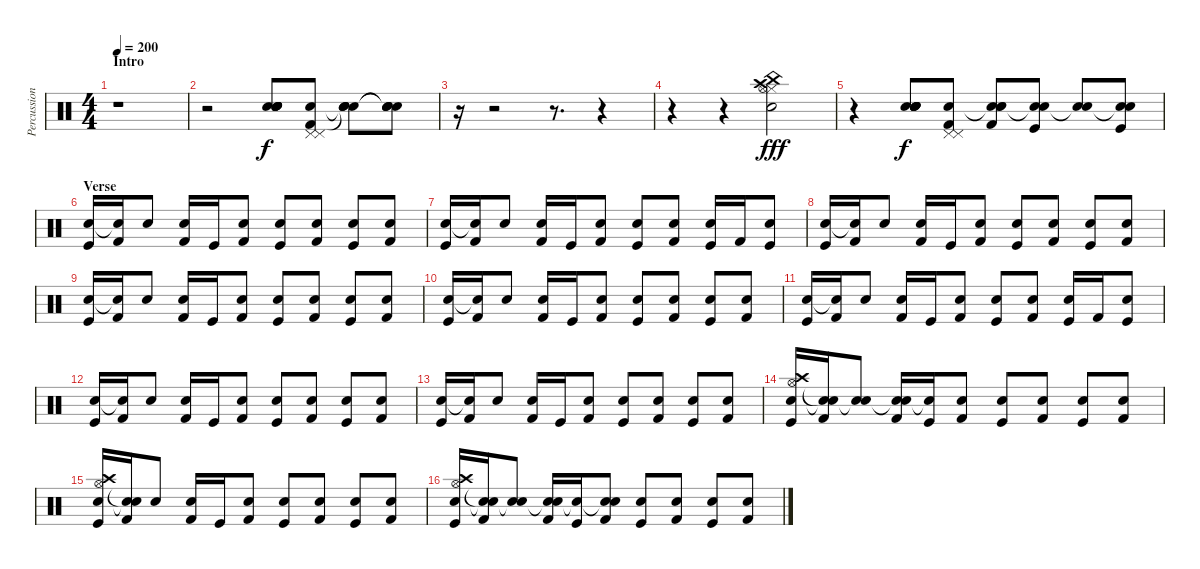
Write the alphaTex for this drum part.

\track ("Percussion" "Percussion") {instrument percussion}
\staff {score}
\articulation defaults
\ts (4 4)
\section ("" "Intro")
\tempo 200
\clef neutral
\ks c
r.1{dy f} |
r.2 ("Snare (hit) 2" "Snare (hit) 2" "Snare (hit) 2" "Snare (hit) 2" "Snare (hit) 2" "Snare (hit) 2").8 ("Snare (hit) 2" "Pedal Hi-Hat (hit)" "Pedal Hi-Hat (hit)" "Kick (hit) 2").8 ("Snare (hit)"{t} "Snare (hit) 2" "Snare (hit) 2" "Snare (hit)"{t}).8 ("Snare (hit)"{t} "Snare (hit) 2" "Snare (hit) 2" "Snare (hit)"{t}).8 |
r.16 r.2 r.8{d} r.4 |
r.4 r.4 ("Snare (hit) 2" "China (hit)" "Hi-Hat (closed)" "Hi-Hat (open)" "Crash high (hit)").2{dy fff} |
r.4 ("Snare (hit) 2" "Snare (hit) 2" "Snare (hit) 2" "Snare (hit) 2" "Snare (hit) 2" "Snare (hit) 2").8{dy f} ("Snare (hit) 2" "Pedal Hi-Hat (hit)" "Pedal Hi-Hat (hit)" "Kick (hit) 2").8 ("Snare (hit)"{t} "Snare (hit) 2" "Snare (hit) 2" "Kick (hit) 2").8 ("Snare (hit)"{t} "Electric Snare (hit)" "Kick (hit)").8 ("Snare (hit)"{t} "Snare (hit) 2").8 ("Snare (hit)"{t} "Electric Snare (hit)" "Kick (hit)").8 |
\section ("" "Verse")
("Snare (hit) 2" "Kick (hit)").16 ("Snare (hit) 2"{t} "Kick (hit) 2").16 "Electric Snare (hit)".8 ("Snare (hit) 2" "Kick (hit) 2").16 "Kick (hit)".16 ("Electric Snare (hit)" "Kick (hit) 2").8 ("Snare (hit) 2" "Kick (hit)").8 ("Electric Snare (hit)" "Kick (hit) 2").8 ("Snare (hit) 2" "Kick (hit)").8 ("Electric Snare (hit)" "Kick (hit) 2").8 |
("Snare (hit) 2" "Kick (hit)").16 ("Snare (hit) 2"{t} "Kick (hit) 2").16 "Electric Snare (hit)".8 ("Snare (hit) 2" "Kick (hit) 2").16 "Kick (hit)".16 ("Electric Snare (hit)" "Kick (hit) 2").8 ("Snare (hit) 2" "Kick (hit)").8 ("Snare (hit) 2" "Kick (hit) 2").8 ("Electric Snare (hit)" "Kick (hit)").16 "Kick (hit) 2".16 ("Electric Snare (hit)" "Kick (hit)").8 |
("Snare (hit) 2" "Kick (hit)").16 ("Snare (hit) 2"{t} "Kick (hit) 2").16 "Electric Snare (hit)".8 ("Snare (hit) 2" "Kick (hit) 2").16 "Kick (hit)".16 ("Electric Snare (hit)" "Kick (hit) 2").8 ("Snare (hit) 2" "Kick (hit)").8 ("Electric Snare (hit)" "Kick (hit) 2").8 ("Snare (hit) 2" "Kick (hit)").8 ("Electric Snare (hit)" "Kick (hit) 2").8 |
("Snare (hit) 2" "Kick (hit)").16 ("Snare (hit) 2"{t} "Kick (hit) 2").16 "Electric Snare (hit)".8 ("Snare (hit) 2" "Kick (hit) 2").16 "Kick (hit)".16 ("Electric Snare (hit)" "Kick (hit) 2").8 ("Snare (hit) 2" "Kick (hit)").8 ("Electric Snare (hit)" "Kick (hit) 2").8 ("Snare (hit) 2" "Kick (hit)").8 ("Electric Snare (hit)" "Kick (hit) 2").8 |
("Snare (hit) 2" "Kick (hit)").16 ("Snare (hit) 2"{t} "Kick (hit) 2").16 "Electric Snare (hit)".8 ("Snare (hit) 2" "Kick (hit) 2").16 "Kick (hit)".16 ("Electric Snare (hit)" "Kick (hit) 2").8 ("Snare (hit) 2" "Kick (hit)").8 ("Electric Snare (hit)" "Kick (hit) 2").8 ("Snare (hit) 2" "Kick (hit)").8 ("Electric Snare (hit)" "Kick (hit) 2").8 |
("Snare (hit) 2" "Kick (hit)").16 ("Snare (hit) 2"{t} "Kick (hit) 2").16 "Electric Snare (hit)".8 ("Snare (hit) 2" "Kick (hit) 2").16 "Kick (hit)".16 ("Electric Snare (hit)" "Kick (hit) 2").8 ("Snare (hit) 2" "Kick (hit)").8 ("Snare (hit) 2" "Kick (hit) 2").8 ("Electric Snare (hit)" "Kick (hit)").16 "Kick (hit) 2".16 ("Electric Snare (hit)" "Kick (hit)").8 |
("Snare (hit) 2" "Kick (hit)").16 ("Snare (hit) 2"{t} "Kick (hit) 2").16 "Electric Snare (hit)".8 ("Snare (hit) 2" "Kick (hit) 2").16 "Kick (hit)".16 ("Electric Snare (hit)" "Kick (hit) 2").8 ("Snare (hit) 2" "Kick (hit)").8 ("Electric Snare (hit)" "Kick (hit) 2").8 ("Snare (hit) 2" "Kick (hit)").8 ("Electric Snare (hit)" "Kick (hit) 2").8 |
("Snare (hit) 2" "Kick (hit)").16 ("Snare (hit) 2"{t} "Kick (hit) 2").16 "Electric Snare (hit)".8 ("Snare (hit) 2" "Kick (hit) 2").16 "Kick (hit)".16 ("Electric Snare (hit)" "Kick (hit) 2").8 ("Snare (hit) 2" "Kick (hit)").8 ("Electric Snare (hit)" "Kick (hit) 2").8 ("Snare (hit) 2" "Kick (hit)").8 ("Electric Snare (hit)" "Kick (hit) 2").8 |
("Hi-Hat (open)" "Snare (hit) 2" "Crash high (hit)" "Kick (hit)").16 ("Snare (hit)"{t} "Snare (hit) 2"{t} "Kick (hit) 2").16 ("Snare (hit)"{t} "Electric Snare (hit)").8 ("Snare (hit)"{t} "Snare (hit) 2" "Kick (hit) 2").16 ("Snare (hit)"{t} "Kick (hit)").16 ("Electric Snare (hit)" "Kick (hit) 2").8 ("Snare (hit) 2" "Kick (hit)").8 ("Electric Snare (hit)" "Kick (hit) 2").8 ("Snare (hit) 2" "Kick (hit)").8 ("Electric Snare (hit)" "Kick (hit) 2").8 |
("Hi-Hat (open)" "Snare (hit) 2" "Crash high (hit)" "Kick (hit)").16 ("Snare (hit)"{t} "Snare (hit) 2"{t} "Kick (hit) 2").16 "Electric Snare (hit)".8 ("Snare (hit) 2" "Kick (hit) 2").16 "Kick (hit)".16 ("Electric Snare (hit)" "Kick (hit) 2").8 ("Snare (hit) 2" "Kick (hit)").8 ("Electric Snare (hit)" "Kick (hit) 2").8 ("Snare (hit) 2" "Kick (hit)").8 ("Electric Snare (hit)" "Kick (hit) 2").8 |
("Hi-Hat (open)" "Snare (hit) 2" "Crash high (hit)" "Kick (hit)").16 ("Snare (hit)"{t} "Snare (hit) 2"{t} "Kick (hit) 2").16 ("Snare (hit)"{t} "Electric Snare (hit)").8 ("Snare (hit)"{t} "Snare (hit) 2" "Kick (hit) 2").16 ("Snare (hit)"{t} "Kick (hit)").16 ("Snare (hit)"{t} "Electric Snare (hit)" "Kick (hit) 2").8 ("Snare (hit) 2" "Kick (hit)").8 ("Electric Snare (hit)" "Kick (hit) 2").8 ("Snare (hit) 2" "Kick (hit)").8 ("Electric Snare (hit)" "Kick (hit) 2").8
